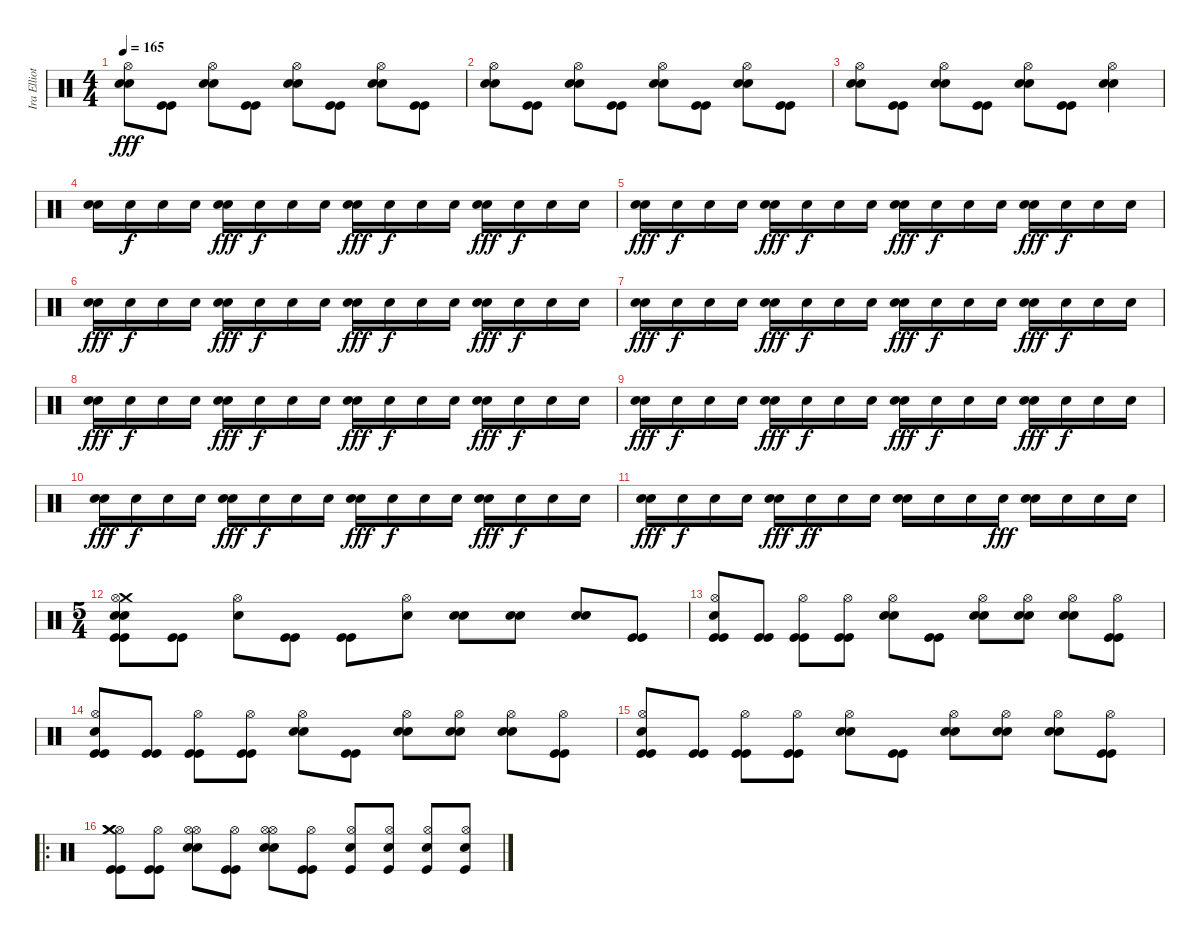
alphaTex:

\track ("Ira Elliott (drums)" "Ira Elliot") {instrument percussion}
\staff {score}
\articulation defaults
\ts (4 4)
\tempo 165
\clef neutral
\ks c
("Snare (hit) 2" "Electric Snare (hit)" "Hi-Hat (open)").8{dy fff} ("Kick (hit)" "Kick (hit)").8 ("Snare (hit) 2" "Electric Snare (hit)" "Hi-Hat (open)").8 ("Kick (hit)" "Kick (hit)").8 ("Snare (hit) 2" "Electric Snare (hit)" "Hi-Hat (open)").8 ("Kick (hit)" "Kick (hit)").8 ("Snare (hit) 2" "Electric Snare (hit)" "Hi-Hat (open)").8 ("Kick (hit)" "Kick (hit)").8 |
("Snare (hit) 2" "Electric Snare (hit)" "Hi-Hat (open)").8 ("Kick (hit)" "Kick (hit)").8 ("Snare (hit) 2" "Electric Snare (hit)" "Hi-Hat (open)").8 ("Kick (hit)" "Kick (hit)").8 ("Snare (hit) 2" "Electric Snare (hit)" "Hi-Hat (open)").8 ("Kick (hit)" "Kick (hit)").8 ("Snare (hit) 2" "Electric Snare (hit)" "Hi-Hat (open)").8 ("Kick (hit)" "Kick (hit)").8 |
("Snare (hit) 2" "Electric Snare (hit)" "Hi-Hat (open)").8 ("Kick (hit)" "Kick (hit)").8 ("Snare (hit) 2" "Electric Snare (hit)" "Hi-Hat (open)").8 ("Kick (hit)" "Kick (hit)").8 ("Snare (hit) 2" "Electric Snare (hit)" "Hi-Hat (open)").8 ("Kick (hit)" "Kick (hit)").8 ("Snare (hit) 2" "Electric Snare (hit)" "Hi-Hat (open)").4 |
("Snare (hit) 2" "Electric Snare (hit)").16 "Snare (hit) 2".16{dy f} "Snare (hit) 2".16 "Snare (hit) 2".16 ("Snare (hit) 2" "Electric Snare (hit)").16{dy fff} "Snare (hit) 2".16{dy f} "Snare (hit) 2".16 "Snare (hit) 2".16 ("Snare (hit) 2" "Electric Snare (hit)").16{dy fff} "Snare (hit) 2".16{dy f} "Snare (hit) 2".16 "Snare (hit) 2".16 ("Snare (hit) 2" "Electric Snare (hit)").16{dy fff} "Snare (hit) 2".16{dy f} "Snare (hit) 2".16 "Snare (hit) 2".16 |
("Snare (hit) 2" "Electric Snare (hit)").16{dy fff} "Snare (hit) 2".16{dy f} "Snare (hit) 2".16 "Snare (hit) 2".16 ("Snare (hit) 2" "Electric Snare (hit)").16{dy fff} "Snare (hit) 2".16{dy f} "Snare (hit) 2".16 "Snare (hit) 2".16 ("Snare (hit) 2" "Electric Snare (hit)").16{dy fff} "Snare (hit) 2".16{dy f} "Snare (hit) 2".16 "Snare (hit) 2".16 ("Snare (hit) 2" "Electric Snare (hit)").16{dy fff} "Snare (hit) 2".16{dy f} "Snare (hit) 2".16 "Snare (hit) 2".16 |
("Snare (hit) 2" "Electric Snare (hit)").16{dy fff} "Snare (hit) 2".16{dy f} "Snare (hit) 2".16 "Snare (hit) 2".16 ("Snare (hit) 2" "Electric Snare (hit)").16{dy fff} "Snare (hit) 2".16{dy f} "Snare (hit) 2".16 "Snare (hit) 2".16 ("Snare (hit) 2" "Electric Snare (hit)").16{dy fff} "Snare (hit) 2".16{dy f} "Snare (hit) 2".16 "Snare (hit) 2".16 ("Snare (hit) 2" "Electric Snare (hit)").16{dy fff} "Snare (hit) 2".16{dy f} "Snare (hit) 2".16 "Snare (hit) 2".16 |
("Snare (hit) 2" "Electric Snare (hit)").16{dy fff} "Snare (hit) 2".16{dy f} "Snare (hit) 2".16 "Snare (hit) 2".16 ("Snare (hit) 2" "Electric Snare (hit)").16{dy fff} "Snare (hit) 2".16{dy f} "Snare (hit) 2".16 "Snare (hit) 2".16 ("Snare (hit) 2" "Electric Snare (hit)").16{dy fff} "Snare (hit) 2".16{dy f} "Snare (hit) 2".16 "Snare (hit) 2".16 ("Snare (hit) 2" "Electric Snare (hit)").16{dy fff} "Snare (hit) 2".16{dy f} "Snare (hit) 2".16 "Snare (hit) 2".16 |
("Snare (hit) 2" "Electric Snare (hit)").16{dy fff} "Snare (hit) 2".16{dy f} "Snare (hit) 2".16 "Snare (hit) 2".16 ("Snare (hit) 2" "Electric Snare (hit)").16{dy fff} "Snare (hit) 2".16{dy f} "Snare (hit) 2".16 "Snare (hit) 2".16 ("Snare (hit) 2" "Electric Snare (hit)").16{dy fff} "Snare (hit) 2".16{dy f} "Snare (hit) 2".16 "Snare (hit) 2".16 ("Snare (hit) 2" "Electric Snare (hit)").16{dy fff} "Snare (hit) 2".16{dy f} "Snare (hit) 2".16 "Snare (hit) 2".16 |
("Snare (hit) 2" "Electric Snare (hit)").16{dy fff} "Snare (hit) 2".16{dy f} "Snare (hit) 2".16 "Snare (hit) 2".16 ("Snare (hit) 2" "Electric Snare (hit)").16{dy fff} "Snare (hit) 2".16{dy f} "Snare (hit) 2".16 "Snare (hit) 2".16 ("Snare (hit) 2" "Electric Snare (hit)").16{dy fff} "Snare (hit) 2".16{dy f} "Snare (hit) 2".16 "Snare (hit) 2".16 ("Snare (hit) 2" "Electric Snare (hit)").16{dy fff} "Snare (hit) 2".16{dy f} "Snare (hit) 2".16 "Snare (hit) 2".16 |
("Snare (hit) 2" "Electric Snare (hit)").16{dy fff} "Snare (hit) 2".16{dy f} "Snare (hit) 2".16 "Snare (hit) 2".16 ("Snare (hit) 2" "Electric Snare (hit)").16{dy fff} "Snare (hit) 2".16{dy f} "Snare (hit) 2".16 "Snare (hit) 2".16 ("Snare (hit) 2" "Electric Snare (hit)").16{dy fff} "Snare (hit) 2".16{dy f} "Snare (hit) 2".16 "Snare (hit) 2".16 ("Snare (hit) 2" "Electric Snare (hit)").16{dy fff} "Snare (hit) 2".16{dy f} "Snare (hit) 2".16 "Snare (hit) 2".16 |
("Snare (hit) 2" "Electric Snare (hit)").16{dy fff} "Snare (hit) 2".16{dy f} "Snare (hit) 2".16 "Snare (hit) 2".16 ("Snare (hit) 2" "Electric Snare (hit)").16{dy fff} "Snare (hit) 2".16{dy ff} "Snare (hit) 2".16 "Snare (hit) 2".16 ("Snare (hit) 2" "Electric Snare (hit)").16 "Snare (hit) 2".16 "Snare (hit) 2".16 "Snare (hit) 2".16{dy fff} ("Snare (hit) 2" "Electric Snare (hit)").16 "Snare (hit) 2".16 "Snare (hit) 2".16 "Snare (hit) 2".16 |
\ts (5 4)
("Kick (hit)" "Kick (hit)" "Electric Snare (hit)" "Crash medium (hit)" "Hi-Hat (open)" "Snare (hit) 2").8 ("Kick (hit)" "Kick (hit)").8 ("Snare (hit) 2" "Hi-Hat (open)").8 ("Kick (hit)" "Kick (hit)").8 ("Kick (hit)" "Kick (hit)").8 ("Snare (hit) 2" "Hi-Hat (open)").8 ("Snare (hit) 2" "Electric Snare (hit)").8 ("Snare (hit) 2" "Electric Snare (hit)").8 ("Snare (hit) 2" "Electric Snare (hit)").8 ("Kick (hit)" "Kick (hit)").8 |
("Kick (hit)" "Kick (hit)" "Electric Snare (hit)" "Hi-Hat (open)").8 ("Kick (hit)" "Kick (hit)").8 ("Kick (hit)" "Kick (hit)" "Hi-Hat (open)").8 ("Kick (hit)" "Kick (hit)" "Hi-Hat (open)").8 ("Snare (hit) 2" "Electric Snare (hit)" "Hi-Hat (open)").8 ("Kick (hit)" "Kick (hit)").8 ("Snare (hit) 2" "Electric Snare (hit)" "Hi-Hat (open)").8 ("Snare (hit) 2" "Electric Snare (hit)" "Hi-Hat (open)").8 ("Snare (hit) 2" "Electric Snare (hit)" "Hi-Hat (open)").8 ("Kick (hit)" "Kick (hit)" "Hi-Hat (open)").8 |
("Kick (hit)" "Kick (hit)" "Electric Snare (hit)" "Hi-Hat (open)").8 ("Kick (hit)" "Kick (hit)").8 ("Kick (hit)" "Kick (hit)" "Hi-Hat (open)").8 ("Kick (hit)" "Kick (hit)" "Hi-Hat (open)").8 ("Snare (hit) 2" "Electric Snare (hit)" "Hi-Hat (open)").8 ("Kick (hit)" "Kick (hit)").8 ("Snare (hit) 2" "Electric Snare (hit)" "Hi-Hat (open)").8 ("Snare (hit) 2" "Electric Snare (hit)" "Hi-Hat (open)").8 ("Snare (hit) 2" "Electric Snare (hit)" "Hi-Hat (open)").8 ("Kick (hit)" "Kick (hit)" "Hi-Hat (open)").8 |
("Kick (hit)" "Kick (hit)" "Electric Snare (hit)" "Hi-Hat (open)").8 ("Kick (hit)" "Kick (hit)").8 ("Kick (hit)" "Kick (hit)" "Hi-Hat (open)").8 ("Kick (hit)" "Kick (hit)" "Hi-Hat (open)").8 ("Snare (hit) 2" "Electric Snare (hit)" "Hi-Hat (open)").8 ("Kick (hit)" "Kick (hit)").8 ("Snare (hit) 2" "Electric Snare (hit)" "Hi-Hat (open)").8 ("Snare (hit) 2" "Electric Snare (hit)" "Hi-Hat (open)").8 ("Snare (hit) 2" "Electric Snare (hit)" "Hi-Hat (open)").8 ("Kick (hit)" "Kick (hit)" "Hi-Hat (open)").8 |
\ro
("Kick (hit)" "Kick (hit)" "Hi-Hat (open)" "Crash medium (hit)" "Crash medium (hit)").8 ("Kick (hit)" "Kick (hit)" "Hi-Hat (open)").8 ("Snare (hit) 2" "Hi-Hat (open)" "Electric Snare (hit)" "Hi-Hat (open)").8 ("Kick (hit)" "Kick (hit)" "Hi-Hat (open)").8 ("Snare (hit) 2" "Hi-Hat (open)" "Electric Snare (hit)" "Hi-Hat (open)").8 ("Kick (hit)" "Kick (hit)" "Hi-Hat (open)").8 ("Kick (hit)" "Snare (hit) 2" "Hi-Hat (open)").8 ("Kick (hit)" "Snare (hit) 2" "Hi-Hat (open)").8 ("Kick (hit)" "Snare (hit) 2" "Hi-Hat (open)").8 ("Kick (hit)" "Snare (hit) 2" "Hi-Hat (open)").8
